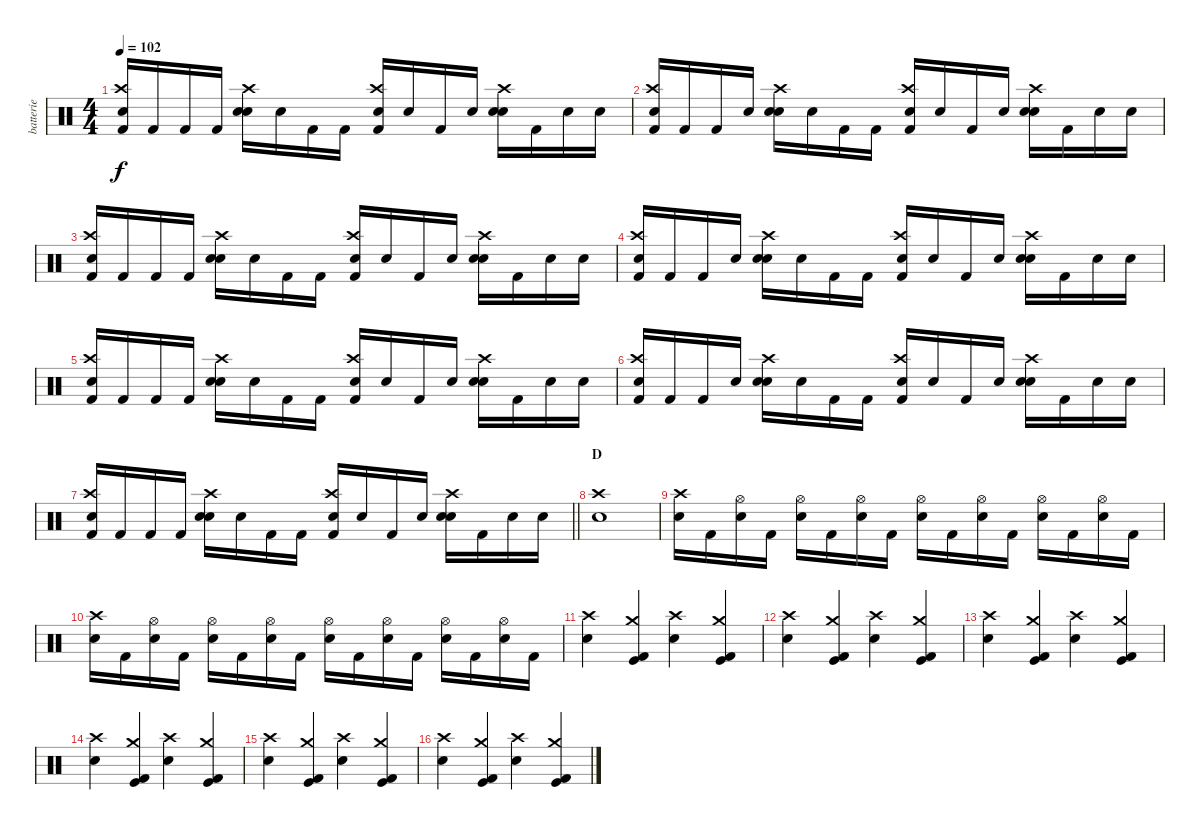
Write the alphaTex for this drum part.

\track ("batterie" "batterie") {instrument percussion}
\staff {score}
\articulation defaults
\ts (4 4)
\tempo 102
\clef neutral
\ks c
("Snare (hit) 2" "Crash high (hit)" "Kick (hit) 2").16{dy f} "Kick (hit) 2".16 "Kick (hit) 2".16 "Kick (hit) 2".16 ("Snare (hit) 2" "Crash high (hit)" "Snare (hit)").16 "Snare (hit)".16 "Kick (hit) 2".16 "Kick (hit) 2".16 ("Snare (hit) 2" "Crash high (hit)" "Kick (hit) 2").16 "Snare (hit)".16 "Kick (hit) 2".16 "Snare (hit)".16 ("Snare (hit) 2" "Crash high (hit)" "Snare (hit)").16 "Kick (hit) 2".16 "Snare (hit)".16 "Snare (hit)".16 |
("Snare (hit) 2" "Crash high (hit)" "Kick (hit) 2").16 "Kick (hit) 2".16 "Kick (hit) 2".16 "Snare (hit)".16 ("Snare (hit) 2" "Crash high (hit)" "Snare (hit)").16 "Snare (hit)".16 "Kick (hit) 2".16 "Kick (hit) 2".16 ("Snare (hit) 2" "Crash high (hit)" "Kick (hit) 2").16 "Snare (hit)".16 "Kick (hit) 2".16 "Snare (hit)".16 ("Snare (hit) 2" "Crash high (hit)" "Snare (hit)").16 "Kick (hit) 2".16 "Snare (hit)".16 "Snare (hit)".16 |
("Snare (hit) 2" "Crash high (hit)" "Kick (hit) 2").16 "Kick (hit) 2".16 "Kick (hit) 2".16 "Kick (hit) 2".16 ("Snare (hit) 2" "Crash high (hit)" "Snare (hit)").16 "Snare (hit)".16 "Kick (hit) 2".16 "Kick (hit) 2".16 ("Snare (hit) 2" "Crash high (hit)" "Kick (hit) 2").16 "Snare (hit)".16 "Kick (hit) 2".16 "Snare (hit)".16 ("Snare (hit) 2" "Crash high (hit)" "Snare (hit)").16 "Kick (hit) 2".16 "Snare (hit)".16 "Snare (hit)".16 |
("Snare (hit) 2" "Crash high (hit)" "Kick (hit) 2").16 "Kick (hit) 2".16 "Kick (hit) 2".16 "Snare (hit)".16 ("Snare (hit) 2" "Crash high (hit)" "Snare (hit)").16 "Snare (hit)".16 "Kick (hit) 2".16 "Kick (hit) 2".16 ("Snare (hit) 2" "Crash high (hit)" "Kick (hit) 2").16 "Snare (hit)".16 "Kick (hit) 2".16 "Snare (hit)".16 ("Snare (hit) 2" "Crash high (hit)" "Snare (hit)").16 "Kick (hit) 2".16 "Snare (hit)".16 "Snare (hit)".16 |
("Snare (hit) 2" "Crash high (hit)" "Kick (hit) 2").16 "Kick (hit) 2".16 "Kick (hit) 2".16 "Kick (hit) 2".16 ("Snare (hit) 2" "Crash high (hit)" "Snare (hit)").16 "Snare (hit)".16 "Kick (hit) 2".16 "Kick (hit) 2".16 ("Snare (hit) 2" "Crash high (hit)" "Kick (hit) 2").16 "Snare (hit)".16 "Kick (hit) 2".16 "Snare (hit)".16 ("Snare (hit) 2" "Crash high (hit)" "Snare (hit)").16 "Kick (hit) 2".16 "Snare (hit)".16 "Snare (hit)".16 |
("Snare (hit) 2" "Crash high (hit)" "Kick (hit) 2").16 "Kick (hit) 2".16 "Kick (hit) 2".16 "Snare (hit)".16 ("Snare (hit) 2" "Crash high (hit)" "Snare (hit)").16 "Snare (hit)".16 "Kick (hit) 2".16 "Kick (hit) 2".16 ("Snare (hit) 2" "Crash high (hit)" "Kick (hit) 2").16 "Snare (hit)".16 "Kick (hit) 2".16 "Snare (hit)".16 ("Snare (hit) 2" "Crash high (hit)" "Snare (hit)").16 "Kick (hit) 2".16 "Snare (hit)".16 "Snare (hit)".16 |
\barLineRight lightlight
("Snare (hit) 2" "Crash high (hit)" "Kick (hit) 2").16 "Kick (hit) 2".16 "Kick (hit) 2".16 "Kick (hit) 2".16 ("Snare (hit) 2" "Crash high (hit)" "Snare (hit)").16 "Snare (hit)".16 "Kick (hit) 2".16 "Kick (hit) 2".16 ("Snare (hit) 2" "Crash high (hit)" "Kick (hit) 2").16 "Snare (hit)".16 "Kick (hit) 2".16 "Snare (hit)".16 ("Snare (hit) 2" "Crash high (hit)" "Snare (hit)").16 "Kick (hit) 2".16 "Snare (hit)".16 "Snare (hit)".16 |
\section ("" "D")
("Snare (hit) 2" "Crash high (hit)").1 |
("Snare (hit) 2" "Crash high (hit)").16 "Kick (hit) 2".16 ("Snare (hit) 2" "Hi-Hat (open)").16 "Kick (hit) 2".16 ("Snare (hit) 2" "Hi-Hat (open)").16 "Kick (hit) 2".16 ("Snare (hit) 2" "Hi-Hat (open)").16 "Kick (hit) 2".16 ("Snare (hit) 2" "Hi-Hat (open)").16 "Kick (hit) 2".16 ("Snare (hit) 2" "Hi-Hat (open)").16 "Kick (hit) 2".16 ("Snare (hit) 2" "Hi-Hat (open)").16 "Kick (hit) 2".16 ("Snare (hit) 2" "Hi-Hat (open)").16 "Kick (hit) 2".16 |
("Snare (hit) 2" "Crash high (hit)").16 "Kick (hit) 2".16 ("Snare (hit) 2" "Hi-Hat (open)").16 "Kick (hit) 2".16 ("Snare (hit) 2" "Hi-Hat (open)").16 "Kick (hit) 2".16 ("Snare (hit) 2" "Hi-Hat (open)").16 "Kick (hit) 2".16 ("Snare (hit) 2" "Hi-Hat (open)").16 "Kick (hit) 2".16 ("Snare (hit) 2" "Hi-Hat (open)").16 "Kick (hit) 2".16 ("Snare (hit) 2" "Hi-Hat (open)").16 "Kick (hit) 2".16 ("Snare (hit) 2" "Hi-Hat (open)").16 "Kick (hit) 2".16 |
("Snare (hit) 2" "Crash high (hit)").4 ("Crash medium (hit)" "Kick (hit) 2" "Kick (hit)").4 ("Snare (hit) 2" "Crash high (hit)").4 ("Crash medium (hit)" "Kick (hit)" "Kick (hit) 2").4 |
("Snare (hit) 2" "Crash high (hit)").4 ("Crash medium (hit)" "Kick (hit) 2" "Kick (hit)").4 ("Snare (hit) 2" "Crash high (hit)").4 ("Crash medium (hit)" "Kick (hit)" "Kick (hit) 2").4 |
("Snare (hit) 2" "Crash high (hit)").4 ("Crash medium (hit)" "Kick (hit) 2" "Kick (hit)").4 ("Snare (hit) 2" "Crash high (hit)").4 ("Crash medium (hit)" "Kick (hit)" "Kick (hit) 2").4 |
("Snare (hit) 2" "Crash high (hit)").4 ("Crash medium (hit)" "Kick (hit) 2" "Kick (hit)").4 ("Snare (hit) 2" "Crash high (hit)").4 ("Crash medium (hit)" "Kick (hit)" "Kick (hit) 2").4 |
("Snare (hit) 2" "Crash high (hit)").4 ("Crash medium (hit)" "Kick (hit) 2" "Kick (hit)").4 ("Snare (hit) 2" "Crash high (hit)").4 ("Crash medium (hit)" "Kick (hit)" "Kick (hit) 2").4 |
("Snare (hit) 2" "Crash high (hit)").4 ("Crash medium (hit)" "Kick (hit) 2" "Kick (hit)").4 ("Snare (hit) 2" "Crash high (hit)").4 ("Crash medium (hit)" "Kick (hit)" "Kick (hit) 2").4
